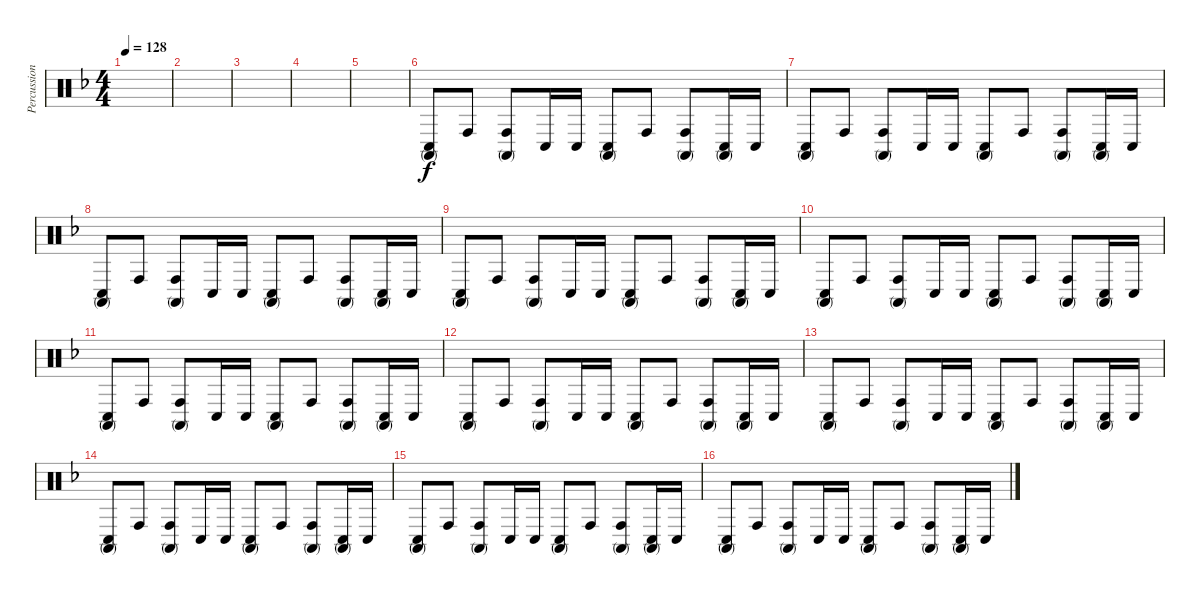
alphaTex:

\track ("Percussion" "Percussion") {instrument percussion}
\staff {score}
\articulation defaults
\ts (4 4)
\tempo 128
\clef neutral
\ks f
|
|
|
|
|
("Conga high (mute)" "Conga low (hit)").8 "Conga high (hit)".8 ("Conga high (mute)" "Conga high (hit)").8 "Conga low (hit)".16 "Conga low (hit)".16 ("Conga high (mute)" "Conga low (hit)").8 "Conga high (hit)".8 ("Conga high (mute)" "Conga high (hit)").8 ("Conga high (mute)" "Conga low (hit)").16 "Conga low (hit)".16 |
("Conga high (mute)" "Conga low (hit)").8 "Conga high (hit)".8 ("Conga high (mute)" "Conga high (hit)").8 "Conga low (hit)".16 "Conga low (hit)".16 ("Conga high (mute)" "Conga low (hit)").8 "Conga high (hit)".8 ("Conga high (mute)" "Conga high (hit)").8 ("Conga high (mute)" "Conga low (hit)").16 "Conga low (hit)".16 |
("Conga high (mute)" "Conga low (hit)").8 "Conga high (hit)".8 ("Conga high (mute)" "Conga high (hit)").8 "Conga low (hit)".16 "Conga low (hit)".16 ("Conga high (mute)" "Conga low (hit)").8 "Conga high (hit)".8 ("Conga high (mute)" "Conga high (hit)").8 ("Conga high (mute)" "Conga low (hit)").16 "Conga low (hit)".16 |
("Conga high (mute)" "Conga low (hit)").8 "Conga high (hit)".8 ("Conga high (mute)" "Conga high (hit)").8 "Conga low (hit)".16 "Conga low (hit)".16 ("Conga high (mute)" "Conga low (hit)").8 "Conga high (hit)".8 ("Conga high (mute)" "Conga high (hit)").8 ("Conga high (mute)" "Conga low (hit)").16 "Conga low (hit)".16 |
("Conga high (mute)" "Conga low (hit)").8 "Conga high (hit)".8 ("Conga high (mute)" "Conga high (hit)").8 "Conga low (hit)".16 "Conga low (hit)".16 ("Conga high (mute)" "Conga low (hit)").8 "Conga high (hit)".8 ("Conga high (mute)" "Conga high (hit)").8 ("Conga high (mute)" "Conga low (hit)").16 "Conga low (hit)".16 |
("Conga high (mute)" "Conga low (hit)").8 "Conga high (hit)".8 ("Conga high (mute)" "Conga high (hit)").8 "Conga low (hit)".16 "Conga low (hit)".16 ("Conga high (mute)" "Conga low (hit)").8 "Conga high (hit)".8 ("Conga high (mute)" "Conga high (hit)").8 ("Conga high (mute)" "Conga low (hit)").16 "Conga low (hit)".16 |
("Conga high (mute)" "Conga low (hit)").8 "Conga high (hit)".8 ("Conga high (mute)" "Conga high (hit)").8 "Conga low (hit)".16 "Conga low (hit)".16 ("Conga high (mute)" "Conga low (hit)").8 "Conga high (hit)".8 ("Conga high (mute)" "Conga high (hit)").8 ("Conga high (mute)" "Conga low (hit)").16 "Conga low (hit)".16 |
("Conga high (mute)" "Conga low (hit)").8 "Conga high (hit)".8 ("Conga high (mute)" "Conga high (hit)").8 "Conga low (hit)".16 "Conga low (hit)".16 ("Conga high (mute)" "Conga low (hit)").8 "Conga high (hit)".8 ("Conga high (mute)" "Conga high (hit)").8 ("Conga high (mute)" "Conga low (hit)").16 "Conga low (hit)".16 |
("Conga high (mute)" "Conga low (hit)").8 "Conga high (hit)".8 ("Conga high (mute)" "Conga high (hit)").8 "Conga low (hit)".16 "Conga low (hit)".16 ("Conga high (mute)" "Conga low (hit)").8 "Conga high (hit)".8 ("Conga high (mute)" "Conga high (hit)").8 ("Conga high (mute)" "Conga low (hit)").16 "Conga low (hit)".16 |
("Conga high (mute)" "Conga low (hit)").8 "Conga high (hit)".8 ("Conga high (mute)" "Conga high (hit)").8 "Conga low (hit)".16 "Conga low (hit)".16 ("Conga high (mute)" "Conga low (hit)").8 "Conga high (hit)".8 ("Conga high (mute)" "Conga high (hit)").8 ("Conga high (mute)" "Conga low (hit)").16 "Conga low (hit)".16 |
("Conga high (mute)" "Conga low (hit)").8 "Conga high (hit)".8 ("Conga high (mute)" "Conga high (hit)").8 "Conga low (hit)".16 "Conga low (hit)".16 ("Conga high (mute)" "Conga low (hit)").8 "Conga high (hit)".8 ("Conga high (mute)" "Conga high (hit)").8 ("Conga high (mute)" "Conga low (hit)").16 "Conga low (hit)".16
